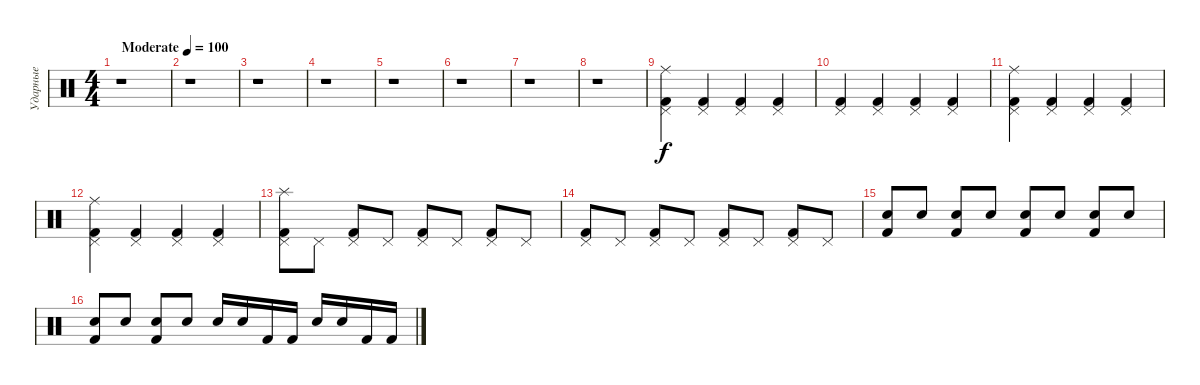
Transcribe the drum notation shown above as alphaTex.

\track ("Ударные" "Ударные") {instrument percussion}
\staff {score}
\articulation defaults
\ts (4 4)
\tempo (100 "Moderate")
\clef neutral
\ks c
r.1{dy f} |
r.1 |
r.1 |
r.1 |
r.1 |
r.1 |
r.1 |
r.1 |
("Ride (middle)" "Pedal Hi-Hat (hit)" "Kick (hit) 2").4 ("Pedal Hi-Hat (hit)" "Kick (hit) 2").4 ("Pedal Hi-Hat (hit)" "Kick (hit) 2").4 ("Pedal Hi-Hat (hit)" "Kick (hit) 2").4 |
("Pedal Hi-Hat (hit)" "Kick (hit) 2").4 ("Pedal Hi-Hat (hit)" "Kick (hit) 2").4 ("Pedal Hi-Hat (hit)" "Kick (hit) 2").4 ("Pedal Hi-Hat (hit)" "Kick (hit) 2").4 |
("Ride (middle)" "Pedal Hi-Hat (hit)" "Kick (hit) 2").4 ("Pedal Hi-Hat (hit)" "Kick (hit) 2").4 ("Pedal Hi-Hat (hit)" "Kick (hit) 2").4 ("Pedal Hi-Hat (hit)" "Kick (hit) 2").4 |
("Ride (middle)" "Pedal Hi-Hat (hit)" "Kick (hit) 2").4 ("Pedal Hi-Hat (hit)" "Kick (hit) 2").4 ("Pedal Hi-Hat (hit)" "Kick (hit) 2").4 ("Pedal Hi-Hat (hit)" "Kick (hit) 2").4 |
("Splash (hit)" "Pedal Hi-Hat (hit)" "Kick (hit) 2").8 "Pedal Hi-Hat (hit)".8 ("Pedal Hi-Hat (hit)" "Kick (hit) 2").8 "Pedal Hi-Hat (hit)".8 ("Pedal Hi-Hat (hit)" "Kick (hit) 2").8 "Pedal Hi-Hat (hit)".8 ("Pedal Hi-Hat (hit)" "Kick (hit) 2").8 "Pedal Hi-Hat (hit)".8 |
("Pedal Hi-Hat (hit)" "Kick (hit) 2").8 "Pedal Hi-Hat (hit)".8 ("Pedal Hi-Hat (hit)" "Kick (hit) 2").8 "Pedal Hi-Hat (hit)".8 ("Pedal Hi-Hat (hit)" "Kick (hit) 2").8 "Pedal Hi-Hat (hit)".8 ("Pedal Hi-Hat (hit)" "Kick (hit) 2").8 "Pedal Hi-Hat (hit)".8 |
("Electric Snare (hit)" "Kick (hit) 2").8 "Electric Snare (hit)".8 ("Electric Snare (hit)" "Kick (hit) 2").8 "Electric Snare (hit)".8 ("Electric Snare (hit)" "Kick (hit) 2").8 "Electric Snare (hit)".8 ("Electric Snare (hit)" "Kick (hit) 2").8 "Electric Snare (hit)".8 |
("Electric Snare (hit)" "Kick (hit) 2").8 "Electric Snare (hit)".8 ("Electric Snare (hit)" "Kick (hit) 2").8 "Electric Snare (hit)".8 "Electric Snare (hit)".16 "Electric Snare (hit)".16 "Kick (hit) 2".16 "Kick (hit) 2".16 "Electric Snare (hit)".16 "Electric Snare (hit)".16 "Kick (hit) 2".16 "Kick (hit) 2".16
